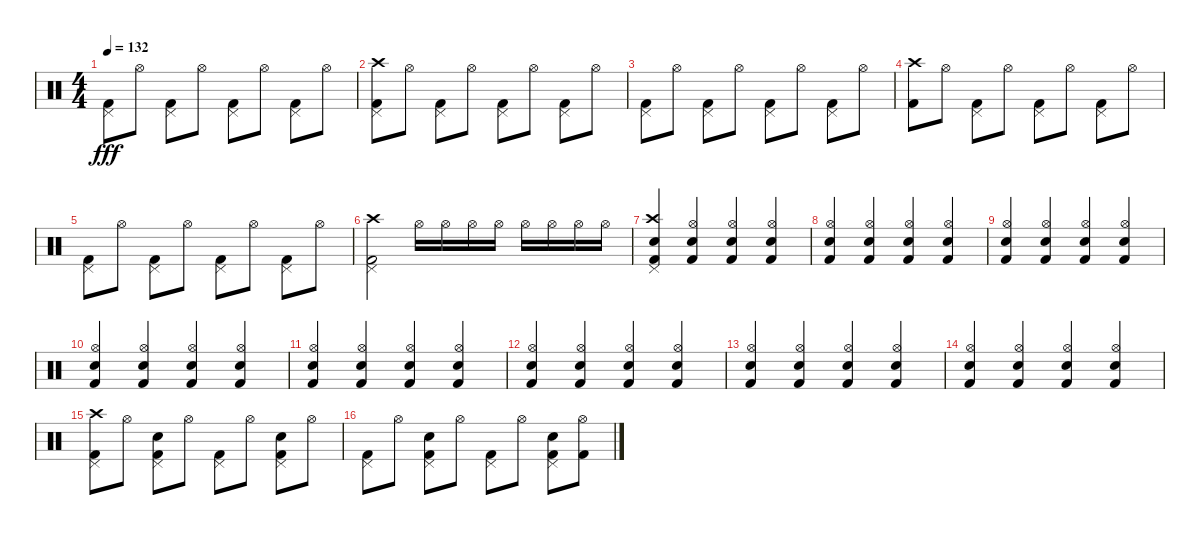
\track "" {instrument percussion}
\staff {score}
\articulation defaults
\ts (4 4)
\tempo 132
\clef neutral
\ks c
("Pedal Hi-Hat (hit)" "Kick (hit) 2").8{dy fff} "Hi-Hat (open)".8 ("Pedal Hi-Hat (hit)" "Kick (hit) 2").8 "Hi-Hat (open)".8 ("Pedal Hi-Hat (hit)" "Kick (hit) 2").8 "Hi-Hat (open)".8 ("Pedal Hi-Hat (hit)" "Kick (hit) 2").8 "Hi-Hat (open)".8 |
("Crash high (hit)" "Pedal Hi-Hat (hit)" "Kick (hit) 2").8 "Hi-Hat (open)".8 ("Pedal Hi-Hat (hit)" "Kick (hit) 2").8 "Hi-Hat (open)".8 ("Pedal Hi-Hat (hit)" "Kick (hit) 2").8 "Hi-Hat (open)".8 ("Pedal Hi-Hat (hit)" "Kick (hit) 2").8 "Hi-Hat (open)".8 |
("Pedal Hi-Hat (hit)" "Kick (hit) 2").8 "Hi-Hat (open)".8 ("Pedal Hi-Hat (hit)" "Kick (hit) 2").8 "Hi-Hat (open)".8 ("Pedal Hi-Hat (hit)" "Kick (hit) 2").8 "Hi-Hat (open)".8 ("Pedal Hi-Hat (hit)" "Kick (hit) 2").8 "Hi-Hat (open)".8 |
("Crash high (hit)" "Kick (hit) 2").8 "Hi-Hat (open)".8 ("Pedal Hi-Hat (hit)" "Kick (hit) 2").8 "Hi-Hat (open)".8 ("Pedal Hi-Hat (hit)" "Kick (hit) 2").8 "Hi-Hat (open)".8 ("Pedal Hi-Hat (hit)" "Kick (hit) 2").8 "Hi-Hat (open)".8 |
("Pedal Hi-Hat (hit)" "Kick (hit) 2").8 "Hi-Hat (open)".8 ("Pedal Hi-Hat (hit)" "Kick (hit) 2").8 "Hi-Hat (open)".8 ("Pedal Hi-Hat (hit)" "Kick (hit) 2").8 "Hi-Hat (open)".8 ("Pedal Hi-Hat (hit)" "Kick (hit) 2").8 "Hi-Hat (open)".8 |
("Crash high (hit)" "Pedal Hi-Hat (hit)" "Kick (hit) 2").2 "Hi-Hat (open)".16 "Hi-Hat (open)".16 "Hi-Hat (open)".16 "Hi-Hat (open)".16 "Hi-Hat (open)".16 "Hi-Hat (open)".16 "Hi-Hat (open)".16 "Hi-Hat (open)".16 |
("Crash high (hit)" "Pedal Hi-Hat (hit)" "Snare (hit) 2" "Kick (hit) 2").4 ("Hi-Hat (open)" "Snare (hit) 2" "Kick (hit) 2").4 ("Hi-Hat (open)" "Snare (hit) 2" "Kick (hit) 2").4 ("Hi-Hat (open)" "Snare (hit) 2" "Kick (hit) 2").4 |
("Hi-Hat (open)" "Snare (hit) 2" "Kick (hit) 2").4 ("Hi-Hat (open)" "Snare (hit) 2" "Kick (hit) 2").4 ("Hi-Hat (open)" "Snare (hit) 2" "Kick (hit) 2").4 ("Hi-Hat (open)" "Snare (hit) 2" "Kick (hit) 2").4 |
("Hi-Hat (open)" "Snare (hit) 2" "Kick (hit) 2").4 ("Hi-Hat (open)" "Snare (hit) 2" "Kick (hit) 2").4 ("Hi-Hat (open)" "Snare (hit) 2" "Kick (hit) 2").4 ("Hi-Hat (open)" "Snare (hit) 2" "Kick (hit) 2").4 |
("Hi-Hat (open)" "Snare (hit) 2" "Kick (hit) 2").4 ("Hi-Hat (open)" "Snare (hit) 2" "Kick (hit) 2").4 ("Hi-Hat (open)" "Snare (hit) 2" "Kick (hit) 2").4 ("Hi-Hat (open)" "Snare (hit) 2" "Kick (hit) 2").4 |
("Hi-Hat (open)" "Snare (hit) 2" "Kick (hit) 2").4 ("Hi-Hat (open)" "Snare (hit) 2" "Kick (hit) 2").4 ("Hi-Hat (open)" "Snare (hit) 2" "Kick (hit) 2").4 ("Hi-Hat (open)" "Snare (hit) 2" "Kick (hit) 2").4 |
("Hi-Hat (open)" "Snare (hit) 2" "Kick (hit) 2").4 ("Hi-Hat (open)" "Snare (hit) 2" "Kick (hit) 2").4 ("Hi-Hat (open)" "Snare (hit) 2" "Kick (hit) 2").4 ("Hi-Hat (open)" "Snare (hit) 2" "Kick (hit) 2").4 |
("Hi-Hat (open)" "Snare (hit) 2" "Kick (hit) 2").4 ("Hi-Hat (open)" "Snare (hit) 2" "Kick (hit) 2").4 ("Hi-Hat (open)" "Snare (hit) 2" "Kick (hit) 2").4 ("Hi-Hat (open)" "Snare (hit) 2" "Kick (hit) 2").4 |
("Hi-Hat (open)" "Snare (hit) 2" "Kick (hit) 2").4 ("Hi-Hat (open)" "Snare (hit) 2" "Kick (hit) 2").4 ("Hi-Hat (open)" "Snare (hit) 2" "Kick (hit) 2").4 ("Hi-Hat (open)" "Snare (hit) 2" "Kick (hit) 2").4 |
("Crash high (hit)" "Pedal Hi-Hat (hit)" "Kick (hit) 2").8 "Hi-Hat (open)".8 ("Pedal Hi-Hat (hit)" "Snare (hit) 2" "Kick (hit) 2").8 "Hi-Hat (open)".8 ("Pedal Hi-Hat (hit)" "Kick (hit) 2").8 "Hi-Hat (open)".8 ("Pedal Hi-Hat (hit)" "Snare (hit) 2" "Kick (hit) 2").8 "Hi-Hat (open)".8 |
("Pedal Hi-Hat (hit)" "Kick (hit) 2").8 "Hi-Hat (open)".8 ("Pedal Hi-Hat (hit)" "Snare (hit) 2" "Kick (hit) 2").8 "Hi-Hat (open)".8 ("Pedal Hi-Hat (hit)" "Kick (hit) 2").8 "Hi-Hat (open)".8 ("Pedal Hi-Hat (hit)" "Snare (hit) 2" "Kick (hit) 2").8 ("Hi-Hat (open)" "Kick (hit) 2").8
